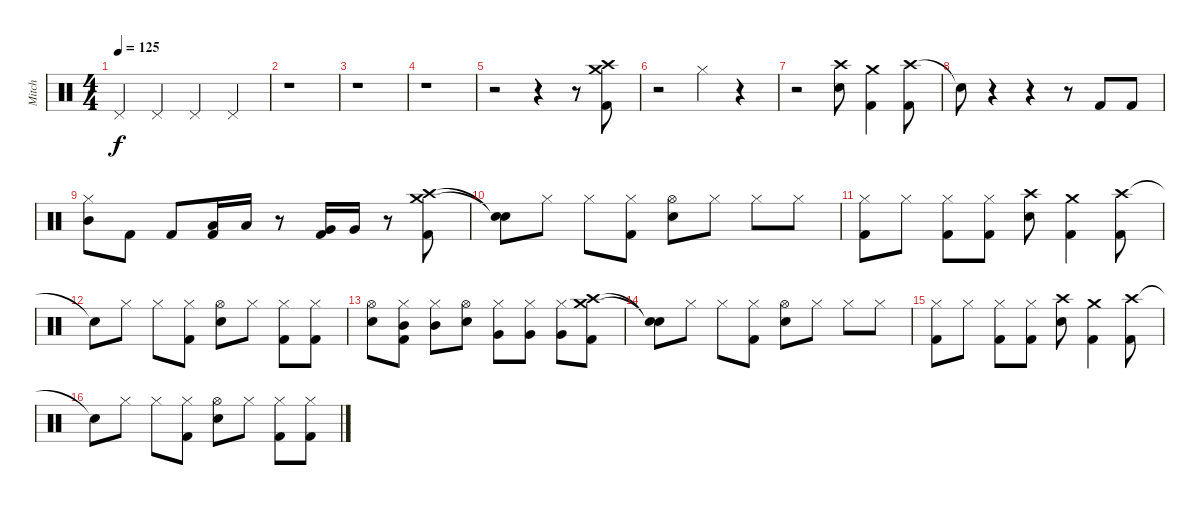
\track ("Mitch" "Mitch") {instrument percussion}
\staff {score}
\articulation defaults
\ts (4 4)
\tempo 125
\clef neutral
\ks c "Pedal Hi-Hat (hit)".4{dy f} "Pedal Hi-Hat (hit)".4 "Pedal Hi-Hat (hit)".4 "Pedal Hi-Hat (hit)".4
|
r.1 |
r.1 |
r.1 |
r.2 r.4 r.8 ("Crash high (hit)" "Crash medium (hit)" "Kick (hit) 2").8 |
r.2 "Hi-Hat (closed)".4 r.4 |
r.2 ("Crash high (hit)" "Snare (hit) 2").8 ("Crash medium (hit)" "Kick (hit) 2").4 ("Crash high (hit)" "Kick (hit) 2").8 |
"Snare (hit)"{t}.8 r.4 r.4 r.8 "Kick (hit) 2".8 "Kick (hit) 2".8 |
("Mid Tom (hit)" "Hi-Hat (closed)").8 "Kick (hit) 2".8 "Kick (hit) 2".8 ("Low Tom (hit)" "Kick (hit) 2").16 "Low Tom (hit)".16 r.8 ("Very Low Tom (hit)" "Kick (hit) 2").16 "Very Low Tom (hit)".16 r.8 ("Crash high (hit)" "Crash medium (hit)" "Kick (hit) 2").8 |
("Snare (hit)"{t} "Snare (hit)"{t}).8 "Hi-Hat (closed)".8 "Hi-Hat (closed)".8 ("Kick (hit) 2" "Hi-Hat (closed)").8 ("Snare (hit) 2" "Hi-Hat (open)").8 "Hi-Hat (closed)".8 "Hi-Hat (closed)".8 "Hi-Hat (closed)".8 |
("Kick (hit) 2" "Hi-Hat (closed)").8 "Hi-Hat (closed)".8 ("Kick (hit) 2" "Hi-Hat (closed)").8 ("Kick (hit) 2" "Hi-Hat (closed)").8 ("Crash high (hit)" "Snare (hit) 2").8 ("Crash medium (hit)" "Kick (hit) 2").4 ("Crash high (hit)" "Kick (hit) 2").8 |
"Snare (hit)"{t}.8 "Hi-Hat (closed)".8 "Hi-Hat (closed)".8 ("Kick (hit) 2" "Hi-Hat (closed)").8 ("Snare (hit) 2" "Hi-Hat (open)").8 "Hi-Hat (closed)".8 ("Kick (hit) 2" "Hi-Hat (closed)").8 ("Kick (hit) 2" "Hi-Hat (closed)").8 |
("Snare (hit) 2" "Hi-Hat (open)").8 ("Mid Tom (hit)" "Kick (hit) 2" "Hi-Hat (closed)").8 ("Mid Tom (hit)" "Hi-Hat (closed)").8 ("Snare (hit) 2" "Hi-Hat (open)").8 ("Very Low Tom (hit)" "Hi-Hat (closed)").8 ("Very Low Tom (hit)" "Hi-Hat (closed)").8 ("Very Low Tom (hit)" "Hi-Hat (closed)").8 ("Crash high (hit)" "Crash medium (hit)" "Kick (hit) 2").8 |
("Snare (hit)"{t} "Snare (hit)"{t}).8 "Hi-Hat (closed)".8 "Hi-Hat (closed)".8 ("Kick (hit) 2" "Hi-Hat (closed)").8 ("Snare (hit) 2" "Hi-Hat (open)").8 "Hi-Hat (closed)".8 "Hi-Hat (closed)".8 "Hi-Hat (closed)".8 |
("Kick (hit) 2" "Hi-Hat (closed)").8 "Hi-Hat (closed)".8 ("Kick (hit) 2" "Hi-Hat (closed)").8 ("Kick (hit) 2" "Hi-Hat (closed)").8 ("Crash high (hit)" "Snare (hit) 2").8 ("Crash medium (hit)" "Kick (hit) 2").4 ("Crash high (hit)" "Kick (hit) 2").8 |
"Snare (hit)"{t}.8 "Hi-Hat (closed)".8 "Hi-Hat (closed)".8 ("Kick (hit) 2" "Hi-Hat (closed)").8 ("Snare (hit) 2" "Hi-Hat (open)").8 "Hi-Hat (closed)".8 ("Kick (hit) 2" "Hi-Hat (closed)").8 ("Kick (hit) 2" "Hi-Hat (closed)").8
